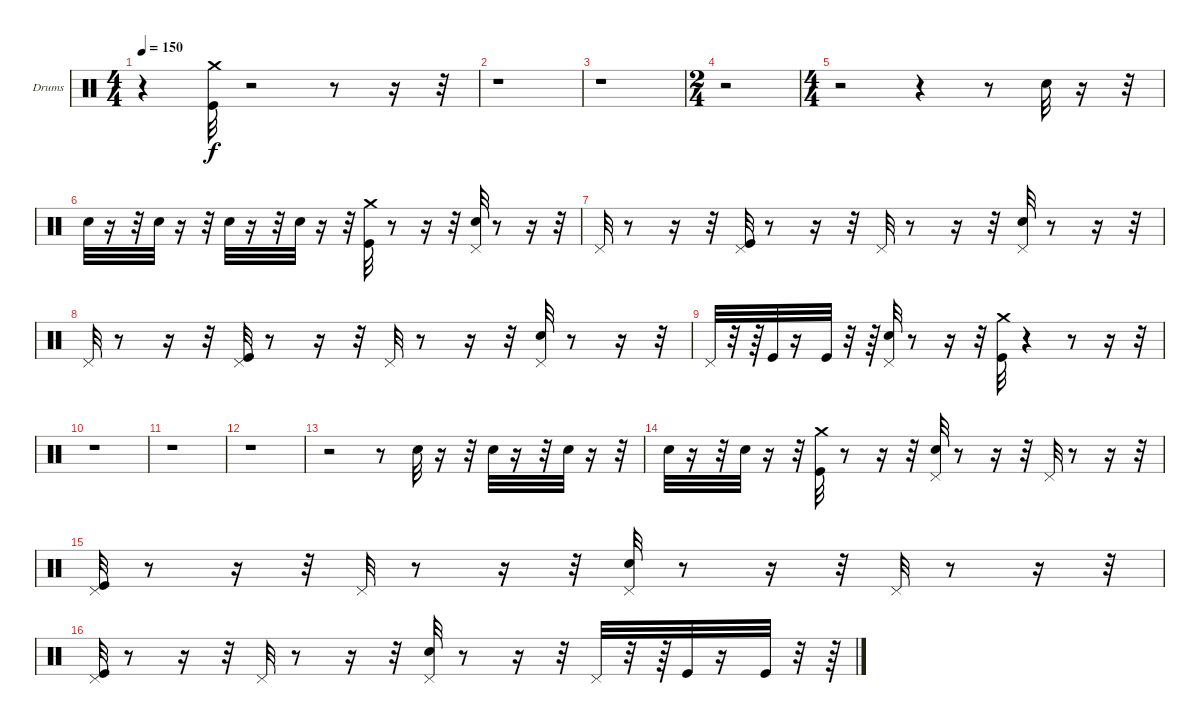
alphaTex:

\bracketExtendMode groupsimilarinstruments
\firstSystemTrackNameOrientation horizontal
\otherSystemsTrackNameOrientation horizontal
\track ("Drumkit" "Drums") {instrument percussion}
\staff {score}
\articulation defaults
\ts (4 4)
\tempo 150
\clef neutral
\ks c
r.4{dy f} ("Crash medium (hit)" "Kick (hit)").32 r.2 r.8 r.16 r.32 |
r.1 |
r.1 |
\ts (2 4)
r.2 |
\ts (4 4)
r.2 r.4 r.8 "Snare (hit) 2".32 r.16 r.32 |
"Snare (hit) 2".32 r.16 r.32 "Snare (hit) 2".32 r.16 r.32 "Snare (hit) 2".32 r.16 r.32 "Snare (hit) 2".32 r.16 r.32 ("Crash medium (hit)" "Kick (hit)").32 r.8 r.16 r.32 ("Pedal Hi-Hat (hit)" "Snare (hit) 2").32 r.8 r.16 r.32 |
"Pedal Hi-Hat (hit)".32 r.8 r.16 r.32 ("Pedal Hi-Hat (hit)" "Kick (hit)").32 r.8 r.16 r.32 "Pedal Hi-Hat (hit)".32 r.8 r.16 r.32 ("Pedal Hi-Hat (hit)" "Snare (hit) 2").32 r.8 r.16 r.32 |
"Pedal Hi-Hat (hit)".32 r.8 r.16 r.32 ("Pedal Hi-Hat (hit)" "Kick (hit)").32 r.8 r.16 r.32 "Pedal Hi-Hat (hit)".32 r.8 r.16 r.32 ("Pedal Hi-Hat (hit)" "Snare (hit) 2").32 r.8 r.16 r.32 |
"Pedal Hi-Hat (hit)".32 r.32 r.64 "Kick (hit)".32 r.16 "Kick (hit)".32 r.32 r.64 ("Pedal Hi-Hat (hit)" "Snare (hit) 2").32 r.8 r.16 r.32 ("Crash medium (hit)" "Kick (hit)").32 r.4 r.8 r.16 r.32 |
r.1 |
r.1 |
r.1 |
r.2 r.8 "Snare (hit) 2".32 r.16 r.32 "Snare (hit) 2".32 r.16 r.32 "Snare (hit) 2".32 r.16 r.32 |
"Snare (hit) 2".32 r.16 r.32 "Snare (hit) 2".32 r.16 r.32 ("Crash medium (hit)" "Kick (hit)").32 r.8 r.16 r.32 ("Pedal Hi-Hat (hit)" "Snare (hit) 2").32 r.8 r.16 r.32 "Pedal Hi-Hat (hit)".32 r.8 r.16 r.32 |
("Pedal Hi-Hat (hit)" "Kick (hit)").32 r.8 r.16 r.32 "Pedal Hi-Hat (hit)".32 r.8 r.16 r.32 ("Pedal Hi-Hat (hit)" "Snare (hit) 2").32 r.8 r.16 r.32 "Pedal Hi-Hat (hit)".32 r.8 r.16 r.32 |
("Pedal Hi-Hat (hit)" "Kick (hit)").32 r.8 r.16 r.32 "Pedal Hi-Hat (hit)".32 r.8 r.16 r.32 ("Pedal Hi-Hat (hit)" "Snare (hit) 2").32 r.8 r.16 r.32 "Pedal Hi-Hat (hit)".32 r.32 r.64 "Kick (hit)".32 r.16 "Kick (hit)".32 r.32 r.64
